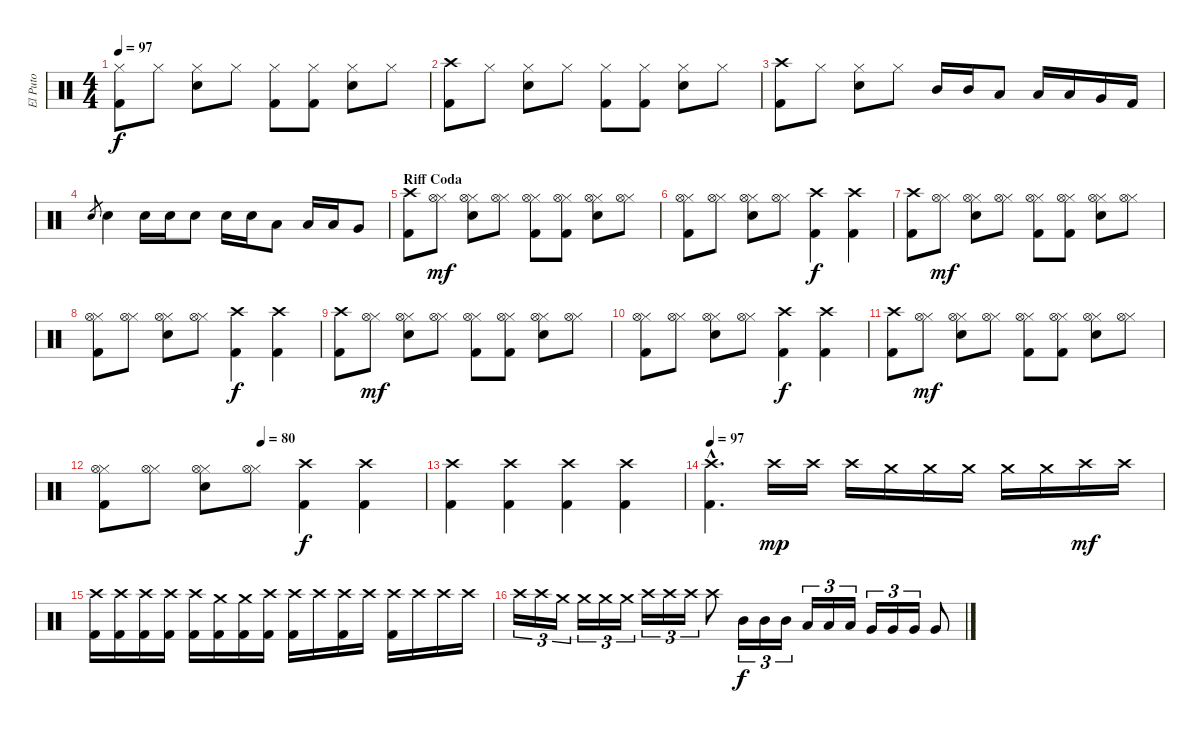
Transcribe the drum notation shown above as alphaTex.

\track ("El Puto" "El Puto") {instrument percussion}
\staff {score}
\articulation defaults
\ts (4 4)
\tempo 97
\clef neutral
\ks c
("Hi-Hat (closed)" "Kick (hit) 2").8{dy f} "Hi-Hat (closed)".8 ("Hi-Hat (closed)" "Snare (hit) 2").8 "Hi-Hat (closed)".8 ("Hi-Hat (closed)" "Kick (hit) 2").8 ("Hi-Hat (closed)" "Kick (hit) 2").8 ("Hi-Hat (closed)" "Snare (hit) 2").8 "Hi-Hat (closed)".8 |
("Crash high (hit)" "Kick (hit) 2").8 "Hi-Hat (closed)".8 ("Hi-Hat (closed)" "Snare (hit) 2").8 "Hi-Hat (closed)".8 ("Hi-Hat (closed)" "Kick (hit) 2").8 ("Hi-Hat (closed)" "Kick (hit) 2").8 ("Hi-Hat (closed)" "Snare (hit) 2").8 "Hi-Hat (closed)".8 |
("Crash high (hit)" "Kick (hit) 2").8 "Hi-Hat (closed)".8 ("Hi-Hat (closed)" "Snare (hit) 2").8 "Hi-Hat (closed)".8 "Mid Tom (hit)".16 "Mid Tom (hit)".16 "Low Tom (hit)".8 "Low Tom (hit)".16 "Low Tom (hit)".16 "Very Low Tom (hit)".16 "Kick (hit) 2".16 |
"Snare (hit) 2".8{gr} "Snare (hit) 2".4 "Snare (hit) 2".16 "Snare (hit) 2".16 "Snare (hit) 2".8 "Snare (hit) 2".16 "Snare (hit) 2".16 "Low Tom (hit)".8 "Low Tom (hit)".16 "Low Tom (hit)".16 "Very Low Tom (hit)".8 |
\section ("" "Riff Coda")
("Crash high (hit)" "Kick (hit) 2").8 ("Hi-Hat (closed)" "Hi-Hat (open)").8{dy mf} ("Hi-Hat (closed)" "Hi-Hat (open)" "Snare (hit) 2").8 ("Hi-Hat (closed)" "Hi-Hat (open)").8 ("Hi-Hat (closed)" "Hi-Hat (open)" "Kick (hit) 2").8 ("Hi-Hat (closed)" "Hi-Hat (open)" "Kick (hit) 2").8 ("Hi-Hat (closed)" "Hi-Hat (open)" "Snare (hit) 2").8 ("Hi-Hat (closed)" "Hi-Hat (open)").8 |
("Hi-Hat (closed)" "Hi-Hat (open)" "Kick (hit) 2").8 ("Hi-Hat (closed)" "Hi-Hat (open)").8 ("Hi-Hat (closed)" "Hi-Hat (open)" "Snare (hit) 2").8 ("Hi-Hat (closed)" "Hi-Hat (open)").8 ("Crash high (hit)" "Kick (hit) 2").4{dy f} ("Crash high (hit)" "Kick (hit) 2").4 |
("Crash high (hit)" "Kick (hit) 2").8 ("Hi-Hat (closed)" "Hi-Hat (open)").8{dy mf} ("Hi-Hat (closed)" "Hi-Hat (open)" "Snare (hit) 2").8 ("Hi-Hat (closed)" "Hi-Hat (open)").8 ("Hi-Hat (closed)" "Hi-Hat (open)" "Kick (hit) 2").8 ("Hi-Hat (closed)" "Hi-Hat (open)" "Kick (hit) 2").8 ("Hi-Hat (closed)" "Hi-Hat (open)" "Snare (hit) 2").8 ("Hi-Hat (closed)" "Hi-Hat (open)").8 |
("Hi-Hat (closed)" "Hi-Hat (open)" "Kick (hit) 2").8 ("Hi-Hat (closed)" "Hi-Hat (open)").8 ("Hi-Hat (closed)" "Hi-Hat (open)" "Snare (hit) 2").8 ("Hi-Hat (closed)" "Hi-Hat (open)").8 ("Crash high (hit)" "Kick (hit) 2").4{dy f} ("Crash high (hit)" "Kick (hit) 2").4 |
("Crash high (hit)" "Kick (hit) 2").8 ("Hi-Hat (closed)" "Hi-Hat (open)").8{dy mf} ("Hi-Hat (closed)" "Hi-Hat (open)" "Snare (hit) 2").8 ("Hi-Hat (closed)" "Hi-Hat (open)").8 ("Hi-Hat (closed)" "Hi-Hat (open)" "Kick (hit) 2").8 ("Hi-Hat (closed)" "Hi-Hat (open)" "Kick (hit) 2").8 ("Hi-Hat (closed)" "Hi-Hat (open)" "Snare (hit) 2").8 ("Hi-Hat (closed)" "Hi-Hat (open)").8 |
("Hi-Hat (closed)" "Hi-Hat (open)" "Kick (hit) 2").8 ("Hi-Hat (closed)" "Hi-Hat (open)").8 ("Hi-Hat (closed)" "Hi-Hat (open)" "Snare (hit) 2").8 ("Hi-Hat (closed)" "Hi-Hat (open)").8 ("Crash high (hit)" "Kick (hit) 2").4{dy f} ("Crash high (hit)" "Kick (hit) 2").4 |
("Crash high (hit)" "Kick (hit) 2").8 ("Hi-Hat (closed)" "Hi-Hat (open)").8{dy mf} ("Hi-Hat (closed)" "Hi-Hat (open)" "Snare (hit) 2").8 ("Hi-Hat (closed)" "Hi-Hat (open)").8 ("Hi-Hat (closed)" "Hi-Hat (open)" "Kick (hit) 2").8 ("Hi-Hat (closed)" "Hi-Hat (open)" "Kick (hit) 2").8 ("Hi-Hat (closed)" "Hi-Hat (open)" "Snare (hit) 2").8 ("Hi-Hat (closed)" "Hi-Hat (open)").8 |
\tempo (80 0.5)
("Hi-Hat (closed)" "Hi-Hat (open)" "Kick (hit) 2").8 ("Hi-Hat (closed)" "Hi-Hat (open)").8 ("Hi-Hat (closed)" "Hi-Hat (open)" "Snare (hit) 2").8 ("Hi-Hat (closed)" "Hi-Hat (open)").8 ("Crash high (hit)" "Kick (hit) 2").4{dy f} ("Crash high (hit)" "Kick (hit) 2").4 |
("Crash high (hit)" "Kick (hit) 2").4 ("Crash high (hit)" "Kick (hit) 2").4 ("Crash high (hit)" "Kick (hit) 2").4 ("Crash high (hit)" "Kick (hit) 2").4 |
\tempo 97
("Crash high (hit)"{hac} "Kick (hit) 2"{hac}).4{d} "Crash high (hit)".16{dy mp} "Crash high (hit)".16 "Crash high (hit)".16 "Crash medium (hit)".16 "Crash medium (hit)".16 "Crash medium (hit)".16 "Crash medium (hit)".16 "Crash medium (hit)".16 "Crash high (hit)".16{dy mf} "Crash high (hit)".16 |
("Crash high (hit)" "Kick (hit) 2").16 ("Crash high (hit)" "Kick (hit) 2").16 ("Crash high (hit)" "Kick (hit) 2").16 ("Crash high (hit)" "Kick (hit) 2").16 ("Crash high (hit)" "Kick (hit) 2").16 ("Crash medium (hit)" "Kick (hit) 2").16 ("Crash medium (hit)" "Kick (hit) 2").16 ("Crash high (hit)" "Kick (hit) 2").16 ("Crash high (hit)" "Kick (hit) 2").16 "Crash high (hit)".16 ("Crash high (hit)" "Kick (hit) 2").16 "Crash high (hit)".16 ("Crash high (hit)" "Kick (hit) 2").16 "Crash high (hit)".16 "Crash high (hit)".16 "Crash high (hit)".16 |
"Crash high (hit)".16{tu (3 2)} "Crash high (hit)".16{tu (3 2)} "Crash medium (hit)".16{tu (3 2)} "Crash medium (hit)".16{tu (3 2)} "Crash medium (hit)".16{tu (3 2)} "Crash medium (hit)".16{tu (3 2)} "Crash high (hit)".16{tu (3 2)} "Crash high (hit)".16{tu (3 2)} "Crash high (hit)".16{tu (3 2)} "Crash high (hit)".8 "Mid Tom (hit)".16{tu (3 2) dy f} "Mid Tom (hit)".16{tu (3 2)} "Mid Tom (hit)".16{tu (3 2)} "Low Tom (hit)".16{tu (3 2)} "Low Tom (hit)".16{tu (3 2)} "Low Tom (hit)".16{tu (3 2)} "Very Low Tom (hit)".16{tu (3 2)} "Very Low Tom (hit)".16{tu (3 2)} "Very Low Tom (hit)".16{tu (3 2)} "Very Low Tom (hit)".8
